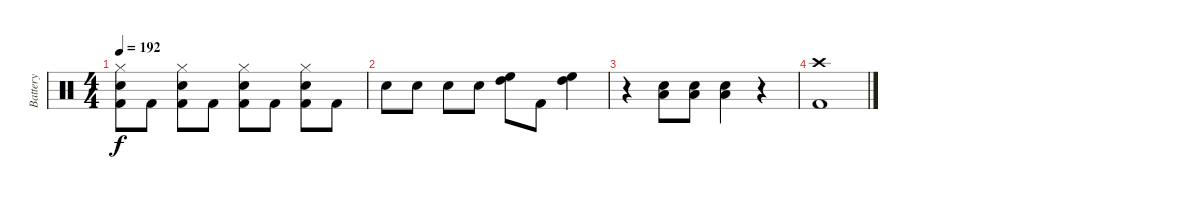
\track ("Battery" "Battery") {instrument percussion}
\staff {score}
\articulation defaults
\ts (4 4)
\tempo 192
\clef neutral
\ks c
("Hi-Hat (closed)" "Snare (hit) 2" "Kick (hit) 2").8{dy f} "Kick (hit) 2".8 ("Hi-Hat (closed)" "Snare (hit) 2" "Kick (hit) 2").8 "Kick (hit) 2".8 ("Hi-Hat (closed)" "Snare (hit) 2" "Kick (hit) 2").8 "Kick (hit) 2".8 ("Hi-Hat (closed)" "Snare (hit) 2" "Kick (hit) 2").8 "Kick (hit) 2".8 |
"Snare (hit) 2".8 "Snare (hit) 2".8 "Snare (hit) 2".8 "Snare (hit) 2".8 ("High Floor Tom (hit)" "High Tom (hit)").8 "Kick (hit) 2".8 ("High Floor Tom (hit)" "High Tom (hit)").4 |
r.4 ("Snare (hit) 2" "Low Tom (hit)").8 ("Snare (hit) 2" "Low Tom (hit)").8 ("Snare (hit) 2" "Low Tom (hit)").4 r.4 |
("Crash high (hit)" "Kick (hit) 2").1
